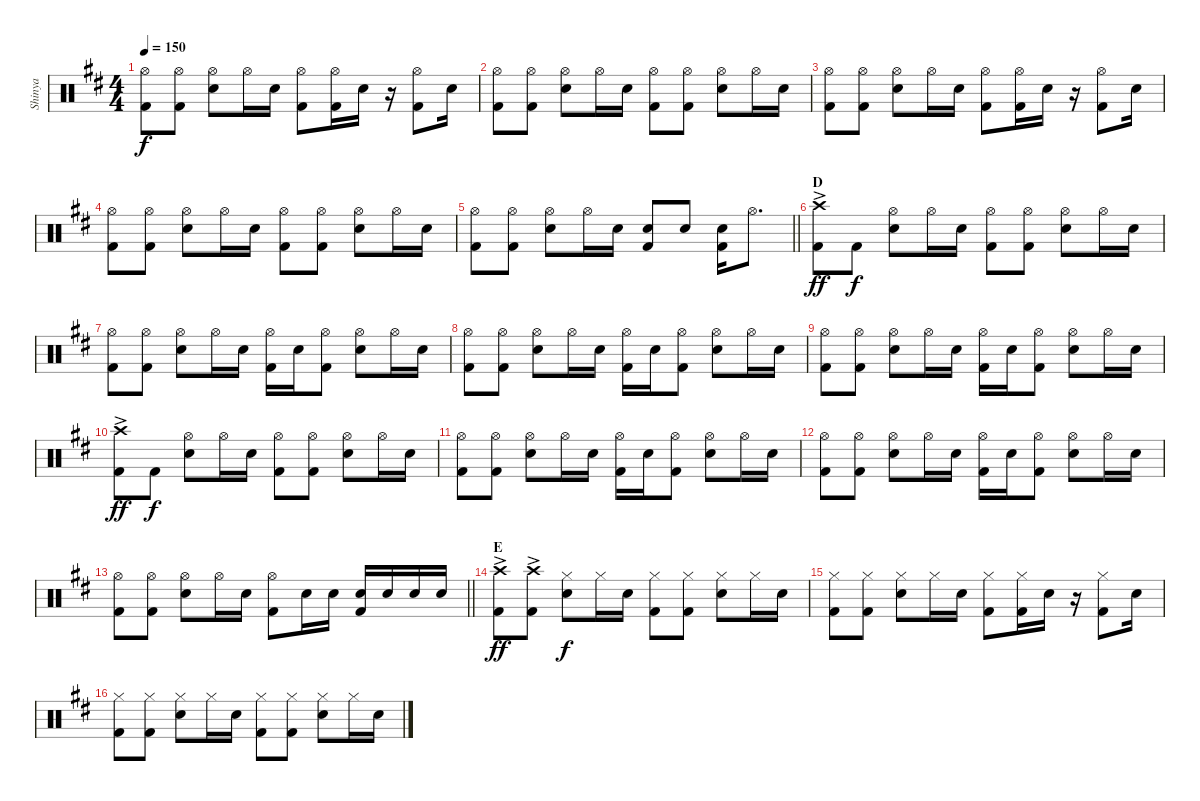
\track ("Shinya" "Shinya") {instrument percussion}
\staff {score}
\articulation defaults
\ts (4 4)
\tempo 150
\clef neutral
\ks d
("Hi-Hat (open)" "Kick (hit) 2").8{dy f} ("Hi-Hat (open)" "Kick (hit) 2").8 ("Hi-Hat (open)" "Snare (hit) 2").8 "Hi-Hat (open)".16 "Snare (hit) 2".16 ("Hi-Hat (open)" "Kick (hit) 2").8 ("Hi-Hat (open)" "Kick (hit) 2").16 "Snare (hit) 2".16 r.16 ("Hi-Hat (open)" "Kick (hit) 2").8 "Snare (hit) 2".16 |
("Hi-Hat (open)" "Kick (hit) 2").8 ("Hi-Hat (open)" "Kick (hit) 2").8 ("Hi-Hat (open)" "Snare (hit) 2").8 "Hi-Hat (open)".16 "Snare (hit) 2".16 ("Hi-Hat (open)" "Kick (hit) 2").8 ("Hi-Hat (open)" "Kick (hit) 2").8 ("Hi-Hat (open)" "Snare (hit) 2").8 "Hi-Hat (open)".16 "Snare (hit) 2".16 |
("Hi-Hat (open)" "Kick (hit) 2").8 ("Hi-Hat (open)" "Kick (hit) 2").8 ("Hi-Hat (open)" "Snare (hit) 2").8 "Hi-Hat (open)".16 "Snare (hit) 2".16 ("Hi-Hat (open)" "Kick (hit) 2").8 ("Hi-Hat (open)" "Kick (hit) 2").16 "Snare (hit) 2".16 r.16 ("Hi-Hat (open)" "Kick (hit) 2").8 "Snare (hit) 2".16 |
("Hi-Hat (open)" "Kick (hit) 2").8 ("Hi-Hat (open)" "Kick (hit) 2").8 ("Hi-Hat (open)" "Snare (hit) 2").8 "Hi-Hat (open)".16 "Snare (hit) 2".16 ("Hi-Hat (open)" "Kick (hit) 2").8 ("Hi-Hat (open)" "Kick (hit) 2").8 ("Hi-Hat (open)" "Snare (hit) 2").8 "Hi-Hat (open)".16 "Snare (hit) 2".16 |
\barLineRight lightlight
("Hi-Hat (open)" "Kick (hit) 2").8 ("Hi-Hat (open)" "Kick (hit) 2").8 ("Hi-Hat (open)" "Snare (hit) 2").8 "Hi-Hat (open)".16 "Snare (hit) 2".16 ("Snare (hit) 2" "Kick (hit) 2").8 "Snare (hit) 2".8 ("Snare (hit) 2" "Kick (hit) 2").16 "Hi-Hat (open)".8{d} |
\section ("" "D")
("Crash high (hit)"{ac} "Kick (hit) 2").8{dy ff} "Kick (hit) 2".8{dy f} ("Hi-Hat (open)" "Snare (hit) 2").8 "Hi-Hat (open)".16 "Snare (hit) 2".16 ("Hi-Hat (open)" "Kick (hit) 2").8 ("Hi-Hat (open)" "Kick (hit) 2").8 ("Hi-Hat (open)" "Snare (hit) 2").8 "Hi-Hat (open)".16 "Snare (hit) 2".16 |
("Hi-Hat (open)" "Kick (hit) 2").8 ("Hi-Hat (open)" "Kick (hit) 2").8 ("Hi-Hat (open)" "Snare (hit) 2").8 "Hi-Hat (open)".16 "Snare (hit) 2".16 ("Hi-Hat (open)" "Kick (hit) 2").16 "Snare (hit) 2".16 ("Hi-Hat (open)" "Kick (hit) 2").8 ("Hi-Hat (open)" "Snare (hit) 2").8 "Hi-Hat (open)".16 "Snare (hit) 2".16 |
("Hi-Hat (open)" "Kick (hit) 2").8 ("Hi-Hat (open)" "Kick (hit) 2").8 ("Hi-Hat (open)" "Snare (hit) 2").8 "Hi-Hat (open)".16 "Snare (hit) 2".16 ("Hi-Hat (open)" "Kick (hit) 2").16 "Snare (hit) 2".16 ("Hi-Hat (open)" "Kick (hit) 2").8 ("Hi-Hat (open)" "Snare (hit) 2").8 "Hi-Hat (open)".16 "Snare (hit) 2".16 |
("Hi-Hat (open)" "Kick (hit) 2").8 ("Hi-Hat (open)" "Kick (hit) 2").8 ("Hi-Hat (open)" "Snare (hit) 2").8 "Hi-Hat (open)".16 "Snare (hit) 2".16 ("Hi-Hat (open)" "Kick (hit) 2").16 "Snare (hit) 2".16 ("Hi-Hat (open)" "Kick (hit) 2").8 ("Hi-Hat (open)" "Snare (hit) 2").8 "Hi-Hat (open)".16 "Snare (hit) 2".16 |
("Crash high (hit)"{ac} "Kick (hit) 2").8{dy ff} "Kick (hit) 2".8{dy f} ("Hi-Hat (open)" "Snare (hit) 2").8 "Hi-Hat (open)".16 "Snare (hit) 2".16 ("Hi-Hat (open)" "Kick (hit) 2").8 ("Hi-Hat (open)" "Kick (hit) 2").8 ("Hi-Hat (open)" "Snare (hit) 2").8 "Hi-Hat (open)".16 "Snare (hit) 2".16 |
("Hi-Hat (open)" "Kick (hit) 2").8 ("Hi-Hat (open)" "Kick (hit) 2").8 ("Hi-Hat (open)" "Snare (hit) 2").8 "Hi-Hat (open)".16 "Snare (hit) 2".16 ("Hi-Hat (open)" "Kick (hit) 2").16 "Snare (hit) 2".16 ("Hi-Hat (open)" "Kick (hit) 2").8 ("Hi-Hat (open)" "Snare (hit) 2").8 "Hi-Hat (open)".16 "Snare (hit) 2".16 |
("Hi-Hat (open)" "Kick (hit) 2").8 ("Hi-Hat (open)" "Kick (hit) 2").8 ("Hi-Hat (open)" "Snare (hit) 2").8 "Hi-Hat (open)".16 "Snare (hit) 2".16 ("Hi-Hat (open)" "Kick (hit) 2").16 "Snare (hit) 2".16 ("Hi-Hat (open)" "Kick (hit) 2").8 ("Hi-Hat (open)" "Snare (hit) 2").8 "Hi-Hat (open)".16 "Snare (hit) 2".16 |
\barLineRight lightlight
("Hi-Hat (open)" "Kick (hit) 2").8 ("Hi-Hat (open)" "Kick (hit) 2").8 ("Hi-Hat (open)" "Snare (hit) 2").8 "Hi-Hat (open)".16 "Snare (hit) 2".16 ("Hi-Hat (open)" "Kick (hit) 2").8 "Snare (hit) 2".16 "Snare (hit) 2".16 ("Snare (hit) 2" "Kick (hit) 2").16 "Snare (hit) 2".16 "Snare (hit) 2".16 "Snare (hit) 2".16 |
\section ("" "E")
("Crash high (hit)"{ac} "Kick (hit) 2").8{dy ff} ("Crash high (hit)"{ac} "Kick (hit) 2").8 ("Hi-Hat (closed)" "Snare (hit) 2").8{dy f} "Hi-Hat (closed)".16 "Snare (hit) 2".16 ("Hi-Hat (closed)" "Kick (hit) 2").8 ("Hi-Hat (closed)" "Kick (hit) 2").8 ("Hi-Hat (closed)" "Snare (hit) 2").8 "Hi-Hat (closed)".16 "Snare (hit) 2".16 |
("Hi-Hat (closed)" "Kick (hit) 2").8 ("Hi-Hat (closed)" "Kick (hit) 2").8 ("Hi-Hat (closed)" "Snare (hit) 2").8 "Hi-Hat (closed)".16 "Snare (hit) 2".16 ("Hi-Hat (closed)" "Kick (hit) 2").8 ("Hi-Hat (closed)" "Kick (hit) 2").16 "Snare (hit) 2".16 r.16 ("Hi-Hat (closed)" "Kick (hit) 2").8 "Snare (hit) 2".16 |
("Hi-Hat (closed)" "Kick (hit) 2").8 ("Hi-Hat (closed)" "Kick (hit) 2").8 ("Hi-Hat (closed)" "Snare (hit) 2").8 "Hi-Hat (closed)".16 "Snare (hit) 2".16 ("Hi-Hat (closed)" "Kick (hit) 2").8 ("Hi-Hat (closed)" "Kick (hit) 2").8 ("Hi-Hat (closed)" "Snare (hit) 2").8 "Hi-Hat (closed)".16 "Snare (hit) 2".16
